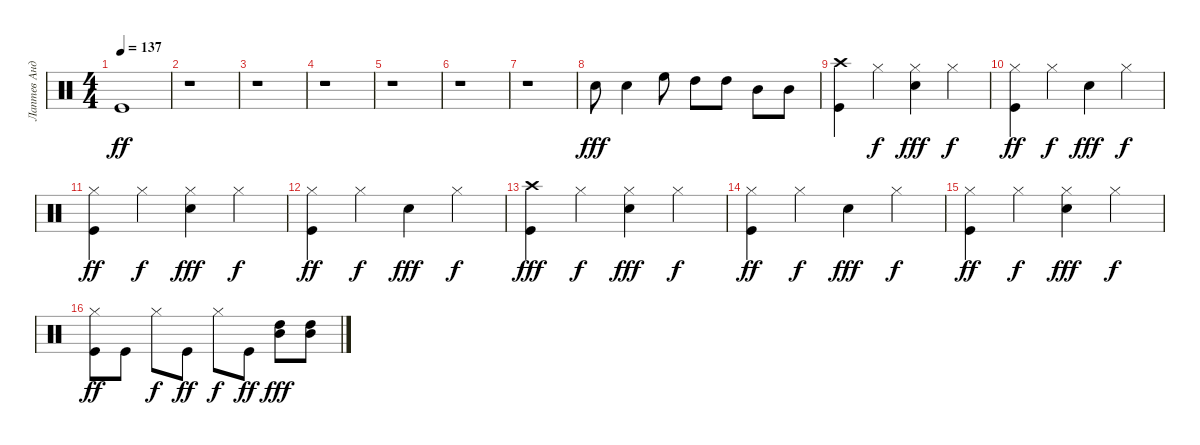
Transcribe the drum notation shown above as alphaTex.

\track ("Лаптев Андрей" "Лаптев Анд") {instrument percussion}
\staff {score}
\articulation defaults
\ts (4 4)
\tempo 137
\clef neutral
\ks c "Kick (hit)".1{dy ff}
|
r.1 |
r.1 |
r.1 |
r.1 |
r.1 |
r.1 |
"Electric Snare (hit)".8{dy fff} "Electric Snare (hit)".4 "High Floor Tom (hit)".8 "High Tom (hit)".8 "High Tom (hit)".8 "Mid Tom (hit)".8 "Mid Tom (hit)".8 |
("Kick (hit)" "Crash high (hit)").4 "Hi-Hat (closed)".4{dy f} ("Electric Snare (hit)" "Hi-Hat (closed)").4{dy fff} "Hi-Hat (closed)".4{dy f} |
("Kick (hit)" "Hi-Hat (closed)").4{dy ff} "Hi-Hat (closed)".4{dy f} "Electric Snare (hit)".4{dy fff} "Hi-Hat (closed)".4{dy f} |
("Kick (hit)" "Hi-Hat (closed)").4{dy ff} "Hi-Hat (closed)".4{dy f} ("Electric Snare (hit)" "Hi-Hat (closed)").4{dy fff} "Hi-Hat (closed)".4{dy f} |
("Kick (hit)" "Hi-Hat (closed)").4{dy ff} "Hi-Hat (closed)".4{dy f} "Electric Snare (hit)".4{dy fff} "Hi-Hat (closed)".4{dy f} |
("Kick (hit)" "Crash high (hit)").4{dy fff} "Hi-Hat (closed)".4{dy f} ("Electric Snare (hit)" "Hi-Hat (closed)").4{dy fff} "Hi-Hat (closed)".4{dy f} |
("Kick (hit)" "Hi-Hat (closed)").4{dy ff} "Hi-Hat (closed)".4{dy f} "Electric Snare (hit)".4{dy fff} "Hi-Hat (closed)".4{dy f} |
("Hi-Hat (closed)" "Kick (hit)").4{dy ff} "Hi-Hat (closed)".4{dy f} ("Electric Snare (hit)" "Hi-Hat (closed)").4{dy fff} "Hi-Hat (closed)".4{dy f} |
("Kick (hit)" "Hi-Hat (closed)").8{dy ff} "Kick (hit)".8 "Hi-Hat (closed)".8{dy f} "Kick (hit)".8{dy ff} "Hi-Hat (closed)".8{dy f} "Kick (hit)".8{dy ff} ("Mid Tom (hit)" "High Tom (hit)").8{dy fff} ("Mid Tom (hit)" "High Tom (hit)").8
